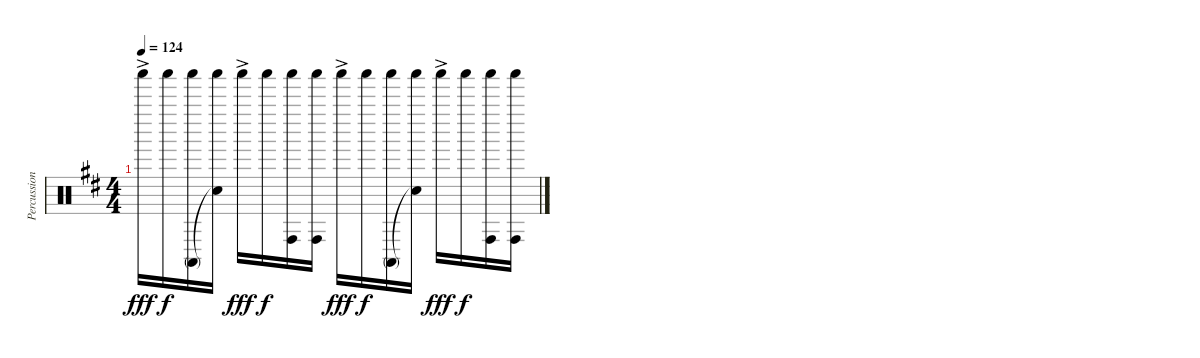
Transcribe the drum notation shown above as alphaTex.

\track ("Percussion" "Percussion") {instrument percussion}
\staff {score}
\articulation defaults
\ts (4 4)
\tempo 124
\clef neutral
\ks d "Shaker (hit)"{ac}.16{dy fff} "Shaker (hit)".16{dy f}
("Shaker (hit)" "Conga high (mute)").16 ("Shaker (hit)" "Snare (hit)"{t}).16 "Shaker (hit)"{ac}.16{dy fff} "Shaker (hit)".16{dy f} ("Shaker (hit)" "Conga high (hit)").16 ("Shaker (hit)" "Conga high (hit)").16 "Shaker (hit)"{ac}.16{dy fff} "Shaker (hit)".16{dy f} ("Shaker (hit)" "Conga high (mute)").16 ("Shaker (hit)" "Snare (hit)"{t}).16 "Shaker (hit)"{ac}.16{dy fff} "Shaker (hit)".16{dy f} ("Shaker (hit)" "Conga high (hit)").16 ("Shaker (hit)" "Conga high (hit)").16
